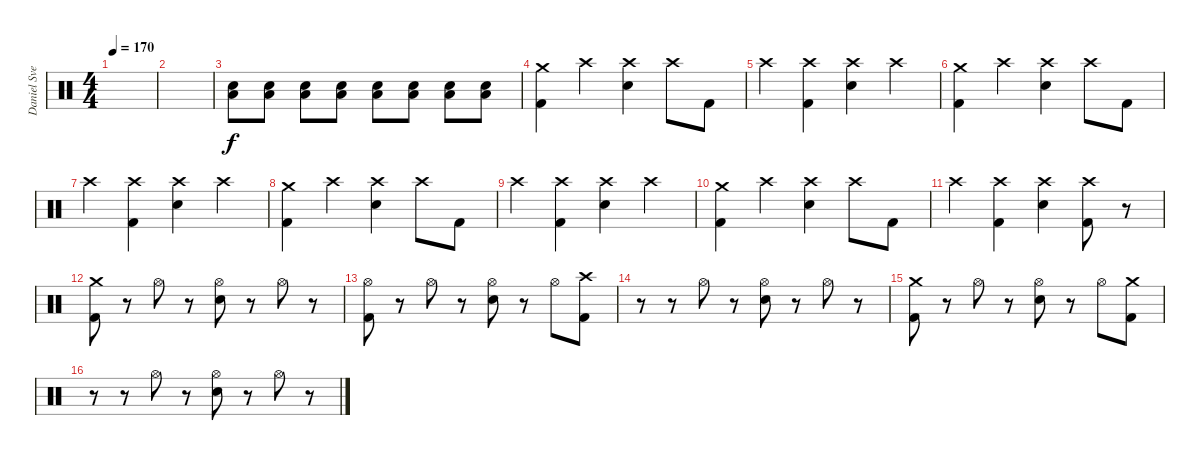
\track ("Daniel Svensson" "Daniel Sve") {instrument percussion}
\staff {score}
\articulation defaults
\ts (4 4)
\tempo 170
\clef neutral
\ks c
|
|
("Low Floor Tom (hit)" "Electric Snare (hit)").8 ("Low Floor Tom (hit)" "Electric Snare (hit)").8 ("Low Floor Tom (hit)" "Electric Snare (hit)").8 ("Low Floor Tom (hit)" "Electric Snare (hit)").8 ("Low Floor Tom (hit)" "Electric Snare (hit)").8 ("Low Floor Tom (hit)" "Electric Snare (hit)").8 ("Low Floor Tom (hit)" "Electric Snare (hit)").8 ("Low Floor Tom (hit)" "Electric Snare (hit)").8 |
("Crash medium (hit)" "Kick (hit) 2").4 "Crash high (hit)".4 ("Crash high (hit)" "Electric Snare (hit)").4 "Crash high (hit)".8 "Kick (hit) 2".8 |
"Crash high (hit)".4 ("Crash high (hit)" "Kick (hit) 2").4 ("Crash high (hit)" "Electric Snare (hit)").4 "Crash high (hit)".4 |
("Crash medium (hit)" "Kick (hit) 2").4 "Crash high (hit)".4 ("Crash high (hit)" "Electric Snare (hit)").4 "Crash high (hit)".8 "Kick (hit) 2".8 |
"Crash high (hit)".4 ("Crash high (hit)" "Kick (hit) 2").4 ("Crash high (hit)" "Electric Snare (hit)").4 "Crash high (hit)".4 |
("Crash medium (hit)" "Kick (hit) 2").4 "Crash high (hit)".4 ("Crash high (hit)" "Electric Snare (hit)").4 "Crash high (hit)".8 "Kick (hit) 2".8 |
"Crash high (hit)".4 ("Crash high (hit)" "Kick (hit) 2").4 ("Crash high (hit)" "Electric Snare (hit)").4 "Crash high (hit)".4 |
("Crash medium (hit)" "Kick (hit) 2").4 "Crash high (hit)".4 ("Crash high (hit)" "Electric Snare (hit)").4 "Crash high (hit)".8 "Kick (hit) 2".8 |
"Crash high (hit)".4 ("Crash high (hit)" "Kick (hit) 2").4 ("Crash high (hit)" "Electric Snare (hit)").4 ("Crash high (hit)" "Kick (hit) 2").8 r.8 |
("Crash medium (hit)" "Kick (hit) 2").8 r.8 "Hi-Hat (open)".8 r.8 ("Hi-Hat (open)" "Electric Snare (hit)").8 r.8 "Hi-Hat (open)".8 r.8 |
("Hi-Hat (open)" "Kick (hit) 2").8 r.8 "Hi-Hat (open)".8 r.8 ("Hi-Hat (open)" "Electric Snare (hit)").8 r.8 "Hi-Hat (open)".8 ("Crash high (hit)" "Kick (hit) 2").8 |
r.8 r.8 "Hi-Hat (open)".8 r.8 ("Hi-Hat (open)" "Electric Snare (hit)").8 r.8 "Hi-Hat (open)".8 r.8 |
("Crash medium (hit)" "Kick (hit) 2").8 r.8 "Hi-Hat (open)".8 r.8 ("Hi-Hat (open)" "Electric Snare (hit)").8 r.8 "Hi-Hat (open)".8 ("Crash medium (hit)" "Kick (hit) 2").8 |
r.8 r.8 "Hi-Hat (open)".8 r.8 ("Hi-Hat (open)" "Electric Snare (hit)").8 r.8 "Hi-Hat (open)".8 r.8
